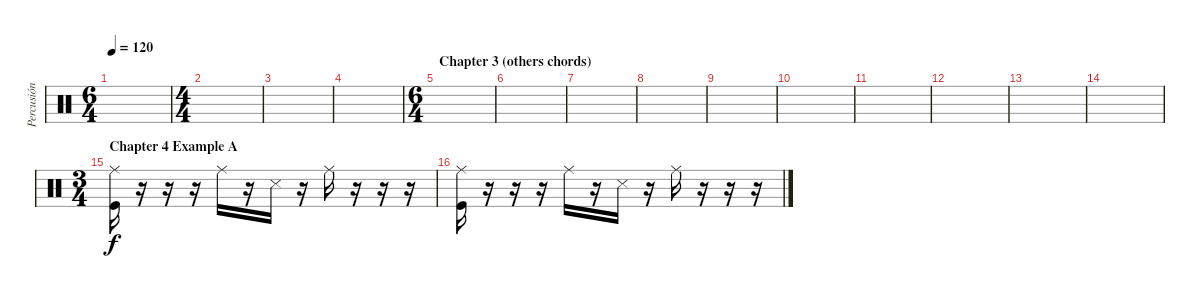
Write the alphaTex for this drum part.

\track ("Percusión" "Percusión") {instrument percussion}
\staff {score}
\articulation defaults
\ts (6 4)
\tempo 120
\clef neutral
\ks c
|
\ts (4 4)
|
|
|
\ts (6 4)
\section ("" "Chapter 3 (others chords)")
|
|
|
|
|
|
|
|
|
|
\ts (3 4)
\section ("" "Chapter 4 Example A")
("Kick (hit)" "Ride (middle)").16 r.16 r.16 r.16 "Ride (middle)".16 r.16 "Snare (side stick) 3".16 r.16 "Ride (middle)".16 r.16 r.16 r.16 |
("Kick (hit)" "Ride (middle)").16 r.16 r.16 r.16 "Ride (middle)".16 r.16 "Snare (side stick) 3".16 r.16 "Ride (middle)".16 r.16 r.16 r.16
